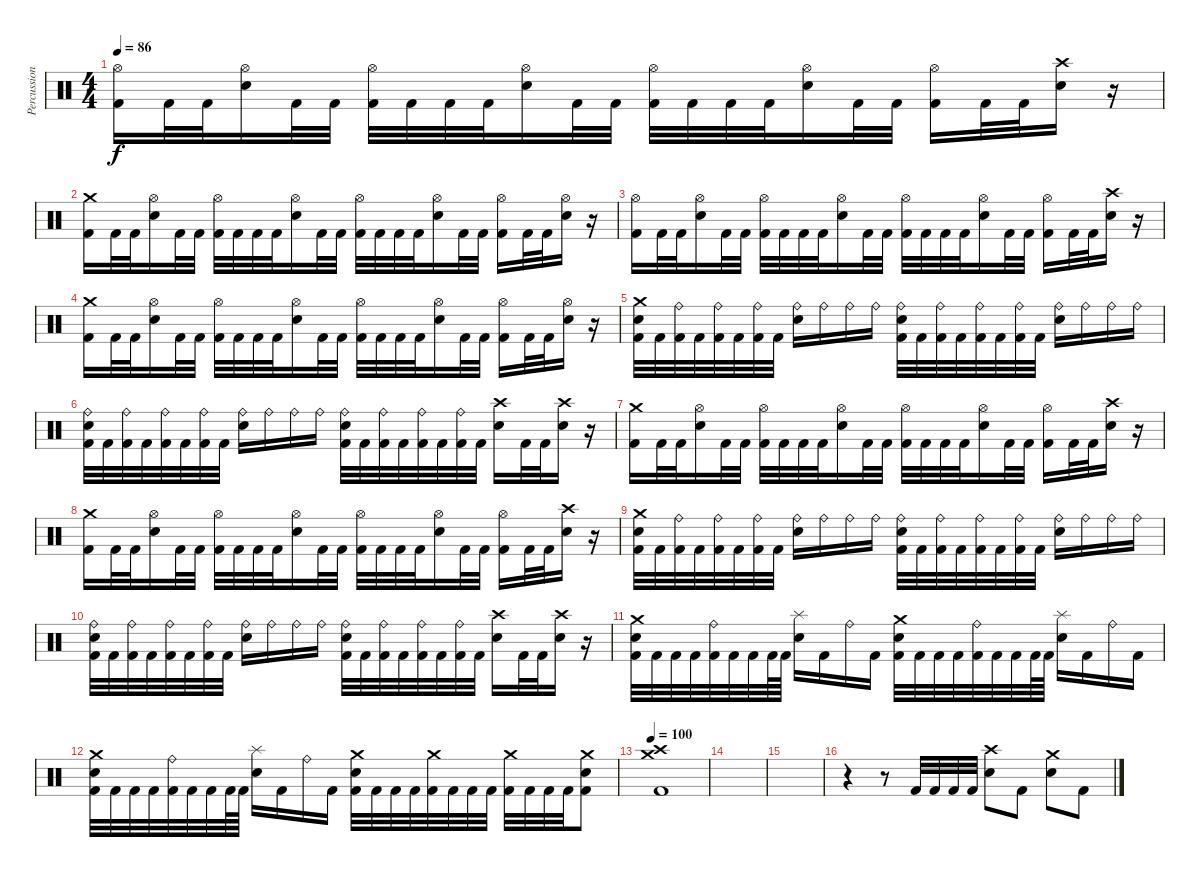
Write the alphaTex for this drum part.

\track ("Percussion" "Percussion") {instrument percussion}
\staff {score}
\articulation defaults
\ts (4 4)
\tempo 86
\clef neutral
\ks c
("Hi-Hat (open)" "Kick (hit) 2").16{dy f} "Kick (hit) 2".32 "Kick (hit) 2".32 ("Hi-Hat (open)" "Electric Snare (hit)").16 "Kick (hit) 2".32 "Kick (hit) 2".32 ("Hi-Hat (open)" "Kick (hit) 2").32 "Kick (hit) 2".32 "Kick (hit) 2".32 "Kick (hit) 2".32 ("Hi-Hat (open)" "Electric Snare (hit)").16 "Kick (hit) 2".32 "Kick (hit) 2".32 ("Hi-Hat (open)" "Kick (hit) 2").32 "Kick (hit) 2".32 "Kick (hit) 2".32 "Kick (hit) 2".32 ("Hi-Hat (open)" "Electric Snare (hit)").16 "Kick (hit) 2".32 "Kick (hit) 2".32 ("Hi-Hat (open)" "Kick (hit) 2").16 "Kick (hit) 2".32 "Kick (hit) 2".32 ("Crash high (hit)" "Electric Snare (hit)").16 r.16 |
("Crash medium (hit)" "Kick (hit) 2").16 "Kick (hit) 2".32 "Kick (hit) 2".32 ("Hi-Hat (open)" "Electric Snare (hit)").16 "Kick (hit) 2".32 "Kick (hit) 2".32 ("Hi-Hat (open)" "Kick (hit) 2").32 "Kick (hit) 2".32 "Kick (hit) 2".32 "Kick (hit) 2".32 ("Hi-Hat (open)" "Electric Snare (hit)").16 "Kick (hit) 2".32 "Kick (hit) 2".32 ("Hi-Hat (open)" "Kick (hit) 2").32 "Kick (hit) 2".32 "Kick (hit) 2".32 "Kick (hit) 2".32 ("Hi-Hat (open)" "Electric Snare (hit)").16 "Kick (hit) 2".32 "Kick (hit) 2".32 ("Hi-Hat (open)" "Kick (hit) 2").16 "Kick (hit) 2".32 "Kick (hit) 2".32 ("Hi-Hat (open)" "Electric Snare (hit)").16 r.16 |
("Hi-Hat (open)" "Kick (hit) 2").16 "Kick (hit) 2".32 "Kick (hit) 2".32 ("Hi-Hat (open)" "Electric Snare (hit)").16 "Kick (hit) 2".32 "Kick (hit) 2".32 ("Hi-Hat (open)" "Kick (hit) 2").32 "Kick (hit) 2".32 "Kick (hit) 2".32 "Kick (hit) 2".32 ("Hi-Hat (open)" "Electric Snare (hit)").16 "Kick (hit) 2".32 "Kick (hit) 2".32 ("Hi-Hat (open)" "Kick (hit) 2").32 "Kick (hit) 2".32 "Kick (hit) 2".32 "Kick (hit) 2".32 ("Hi-Hat (open)" "Electric Snare (hit)").16 "Kick (hit) 2".32 "Kick (hit) 2".32 ("Hi-Hat (open)" "Kick (hit) 2").16 "Kick (hit) 2".32 "Kick (hit) 2".32 ("Crash high (hit)" "Electric Snare (hit)").16 r.16 |
("Crash medium (hit)" "Kick (hit) 2").16 "Kick (hit) 2".32 "Kick (hit) 2".32 ("Hi-Hat (open)" "Electric Snare (hit)").16 "Kick (hit) 2".32 "Kick (hit) 2".32 ("Hi-Hat (open)" "Kick (hit) 2").32 "Kick (hit) 2".32 "Kick (hit) 2".32 "Kick (hit) 2".32 ("Hi-Hat (open)" "Electric Snare (hit)").16 "Kick (hit) 2".32 "Kick (hit) 2".32 ("Hi-Hat (open)" "Kick (hit) 2").32 "Kick (hit) 2".32 "Kick (hit) 2".32 "Kick (hit) 2".32 ("Hi-Hat (open)" "Electric Snare (hit)").16 "Kick (hit) 2".32 "Kick (hit) 2".32 ("Hi-Hat (open)" "Kick (hit) 2").16 "Kick (hit) 2".32 "Kick (hit) 2".32 ("Hi-Hat (open)" "Electric Snare (hit)").16 r.16 |
("Crash medium (hit)" "Electric Snare (hit)" "Kick (hit) 2").32 "Kick (hit) 2".32 ("Ride (bell)" "Kick (hit) 2").32 "Kick (hit) 2".32 ("Ride (bell)" "Kick (hit) 2").32 "Kick (hit) 2".32 ("Ride (bell)" "Kick (hit) 2").32 "Kick (hit) 2".32 ("Ride (bell)" "Electric Snare (hit)").16 "Ride (bell)".16 "Ride (bell)".16 "Ride (bell)".16 ("Ride (bell)" "Electric Snare (hit)" "Kick (hit) 2").32 "Kick (hit) 2".32 ("Ride (bell)" "Kick (hit) 2").32 "Kick (hit) 2".32 ("Ride (bell)" "Kick (hit) 2").32 "Kick (hit) 2".32 ("Ride (bell)" "Kick (hit) 2").32 "Kick (hit) 2".32 ("Ride (bell)" "Electric Snare (hit)").16 "Ride (bell)".16 "Ride (bell)".16 "Ride (bell)".16 |
("Ride (bell)" "Electric Snare (hit)" "Kick (hit) 2").32 "Kick (hit) 2".32 ("Ride (bell)" "Kick (hit) 2").32 "Kick (hit) 2".32 ("Ride (bell)" "Kick (hit) 2").32 "Kick (hit) 2".32 ("Ride (bell)" "Kick (hit) 2").32 "Kick (hit) 2".32 ("Ride (bell)" "Electric Snare (hit)").16 "Ride (bell)".16 "Ride (bell)".16 "Ride (bell)".16 ("Ride (bell)" "Electric Snare (hit)" "Kick (hit) 2").32 "Kick (hit) 2".32 ("Ride (bell)" "Kick (hit) 2").32 "Kick (hit) 2".32 ("Ride (bell)" "Kick (hit) 2").32 "Kick (hit) 2".32 ("Ride (bell)" "Kick (hit) 2").32 "Kick (hit) 2".32 ("Crash high (hit)" "Electric Snare (hit)").16 "Kick (hit) 2".32 "Kick (hit) 2".32 ("Crash high (hit)" "Electric Snare (hit)").16 r.16 |
("Crash medium (hit)" "Kick (hit) 2").16 "Kick (hit) 2".32 "Kick (hit) 2".32 ("Hi-Hat (open)" "Electric Snare (hit)").16 "Kick (hit) 2".32 "Kick (hit) 2".32 ("Hi-Hat (open)" "Kick (hit) 2").32 "Kick (hit) 2".32 "Kick (hit) 2".32 "Kick (hit) 2".32 ("Hi-Hat (open)" "Electric Snare (hit)").16 "Kick (hit) 2".32 "Kick (hit) 2".32 ("Hi-Hat (open)" "Kick (hit) 2").32 "Kick (hit) 2".32 "Kick (hit) 2".32 "Kick (hit) 2".32 ("Hi-Hat (open)" "Electric Snare (hit)").16 "Kick (hit) 2".32 "Kick (hit) 2".32 ("Hi-Hat (open)" "Kick (hit) 2").16 "Kick (hit) 2".32 "Kick (hit) 2".32 ("Crash high (hit)" "Electric Snare (hit)").16 r.16 |
("Crash medium (hit)" "Kick (hit) 2").16 "Kick (hit) 2".32 "Kick (hit) 2".32 ("Hi-Hat (open)" "Electric Snare (hit)").16 "Kick (hit) 2".32 "Kick (hit) 2".32 ("Hi-Hat (open)" "Kick (hit) 2").32 "Kick (hit) 2".32 "Kick (hit) 2".32 "Kick (hit) 2".32 ("Hi-Hat (open)" "Electric Snare (hit)").16 "Kick (hit) 2".32 "Kick (hit) 2".32 ("Hi-Hat (open)" "Kick (hit) 2").32 "Kick (hit) 2".32 "Kick (hit) 2".32 "Kick (hit) 2".32 ("Hi-Hat (open)" "Electric Snare (hit)").16 "Kick (hit) 2".32 "Kick (hit) 2".32 ("Hi-Hat (open)" "Kick (hit) 2").16 "Kick (hit) 2".32 "Kick (hit) 2".32 ("Crash high (hit)" "Electric Snare (hit)").16 r.16 |
("Crash medium (hit)" "Electric Snare (hit)" "Kick (hit) 2").32 "Kick (hit) 2".32 ("Ride (bell)" "Kick (hit) 2").32 "Kick (hit) 2".32 ("Ride (bell)" "Kick (hit) 2").32 "Kick (hit) 2".32 ("Ride (bell)" "Kick (hit) 2").32 "Kick (hit) 2".32 ("Ride (bell)" "Electric Snare (hit)").16 "Ride (bell)".16 "Ride (bell)".16 "Ride (bell)".16 ("Ride (bell)" "Electric Snare (hit)" "Kick (hit) 2").32 "Kick (hit) 2".32 ("Ride (bell)" "Kick (hit) 2").32 "Kick (hit) 2".32 ("Ride (bell)" "Kick (hit) 2").32 "Kick (hit) 2".32 ("Ride (bell)" "Kick (hit) 2").32 "Kick (hit) 2".32 ("Ride (bell)" "Electric Snare (hit)").16 "Ride (bell)".16 "Ride (bell)".16 "Ride (bell)".16 |
("Ride (bell)" "Electric Snare (hit)" "Kick (hit) 2").32 "Kick (hit) 2".32 ("Ride (bell)" "Kick (hit) 2").32 "Kick (hit) 2".32 ("Ride (bell)" "Kick (hit) 2").32 "Kick (hit) 2".32 ("Ride (bell)" "Kick (hit) 2").32 "Kick (hit) 2".32 ("Ride (bell)" "Electric Snare (hit)").16 "Ride (bell)".16 "Ride (bell)".16 "Ride (bell)".16 ("Ride (bell)" "Electric Snare (hit)" "Kick (hit) 2").32 "Kick (hit) 2".32 ("Ride (bell)" "Kick (hit) 2").32 "Kick (hit) 2".32 ("Ride (bell)" "Kick (hit) 2").32 "Kick (hit) 2".32 ("Ride (bell)" "Kick (hit) 2").32 "Kick (hit) 2".32 ("Crash high (hit)" "Electric Snare (hit)").16 "Kick (hit) 2".32 "Kick (hit) 2".32 ("Crash high (hit)" "Electric Snare (hit)").16 r.16 |
("Crash medium (hit)" "Electric Snare (hit)" "Kick (hit) 2").32 "Kick (hit) 2".32 "Kick (hit) 2".32 "Kick (hit) 2".32 ("Ride (bell)" "Kick (hit) 2").32 "Kick (hit) 2".32 "Kick (hit) 2".32 "Kick (hit) 2".64 "Kick (hit) 2".64 ("Splash (hit)" "Electric Snare (hit)").16 "Kick (hit) 2".16 "Ride (bell)".16 "Kick (hit) 2".16 ("Crash medium (hit)" "Electric Snare (hit)" "Kick (hit) 2").32 "Kick (hit) 2".32 "Kick (hit) 2".32 "Kick (hit) 2".32 ("Ride (bell)" "Kick (hit) 2").32 "Kick (hit) 2".32 "Kick (hit) 2".32 "Kick (hit) 2".64 "Kick (hit) 2".64 ("Splash (hit)" "Electric Snare (hit)").16 "Kick (hit) 2".16 "Ride (bell)".16 "Kick (hit) 2".16 |
("Crash medium (hit)" "Electric Snare (hit)" "Kick (hit) 2").32 "Kick (hit) 2".32 "Kick (hit) 2".32 "Kick (hit) 2".32 ("Ride (bell)" "Kick (hit) 2").32 "Kick (hit) 2".32 "Kick (hit) 2".32 "Kick (hit) 2".64 "Kick (hit) 2".64 ("Splash (hit)" "Electric Snare (hit)").16 "Kick (hit) 2".16 "Ride (bell)".16 "Kick (hit) 2".16 ("Crash medium (hit)" "Electric Snare (hit)" "Kick (hit) 2").32 "Kick (hit) 2".32 "Kick (hit) 2".32 "Kick (hit) 2".32 ("Crash medium (hit)" "Kick (hit) 2").32 "Kick (hit) 2".32 "Kick (hit) 2".32 "Kick (hit) 2".32 ("Crash medium (hit)" "Kick (hit) 2").32 "Kick (hit) 2".32 "Kick (hit) 2".32 "Kick (hit) 2".32 ("Crash medium (hit)" "Electric Snare (hit)" "Kick (hit) 2").8 |
\tempo 100
("Crash medium (hit)" "Crash high (hit)" "Kick (hit) 2").1 |
|
|
r.4 r.8 "Kick (hit) 2".32 "Kick (hit) 2".32 "Kick (hit) 2".32 "Kick (hit) 2".32 ("Crash high (hit)" "Electric Snare (hit)").8 "Kick (hit) 2".8 ("Crash medium (hit)" "Electric Snare (hit)").8 "Kick (hit) 2".8
